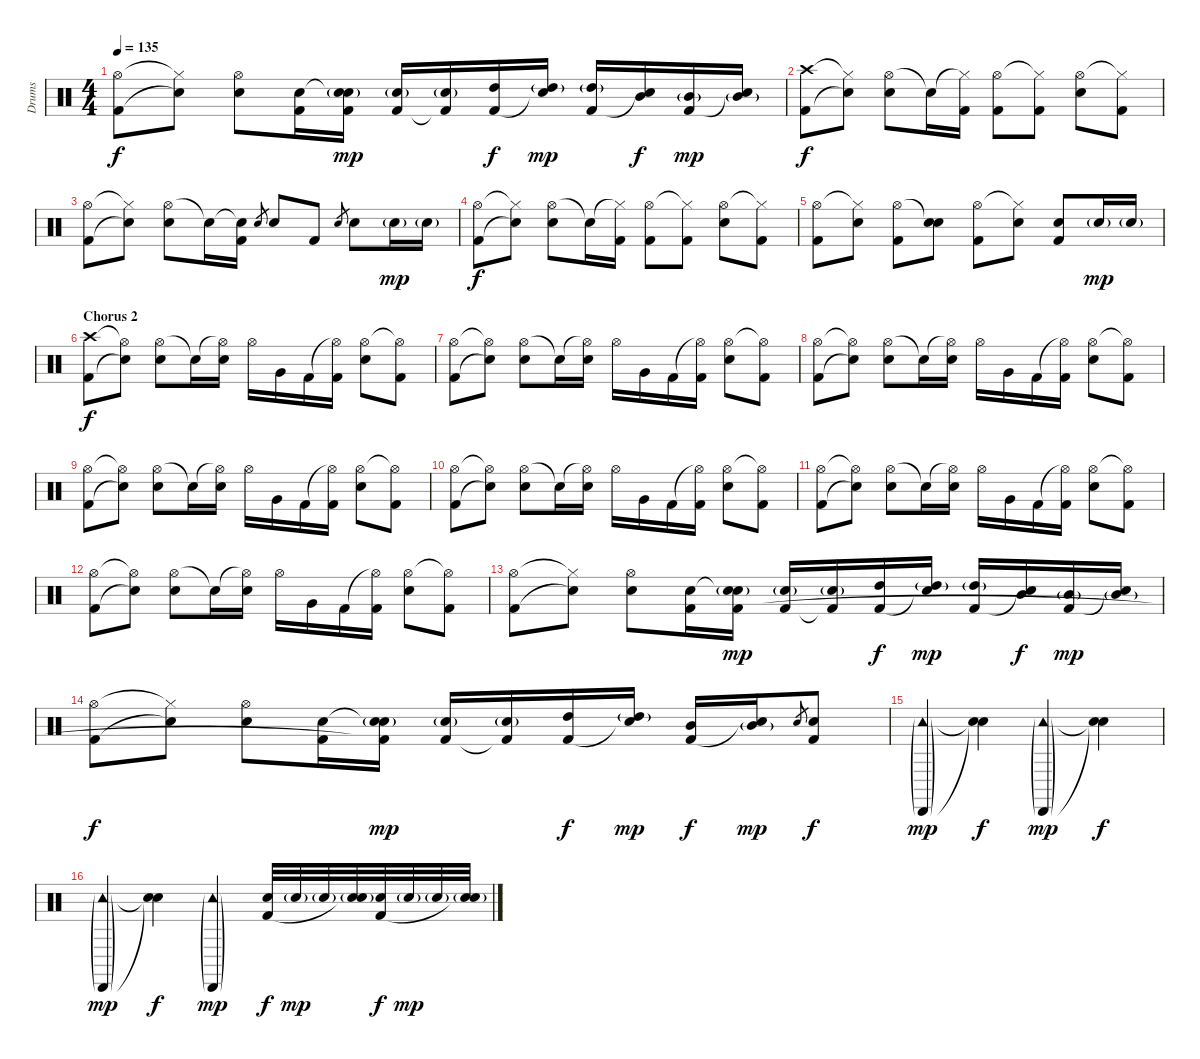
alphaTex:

\track ("Drums" "Drums") {instrument percussion}
\staff {score}
\articulation defaults
\ts (4 4)
\tempo 135
\clef neutral
\ks c
("Hi-Hat (open)" "Kick (hit) 2").8{dy f} ("Hi-Hat (closed)"{t} "Snare (hit)"{t}).8 ("Hi-Hat (open)" "Electric Snare (hit)").8 ("Electric Snare (hit)" "Kick (hit) 2").16 ("Snare (hit)"{t} "Electric Snare (hit)"{g} "Kick (hit) 2").16{dy mp} ("Electric Snare (hit)"{g} "Kick (hit) 2").16 ("Electric Snare (hit)"{g} "Kick (hit) 2"{t}).16 ("High Tom (hit)" "Kick (hit) 2").16{dy f} ("High Tom (hit)"{g} "Snare (hit)"{t}).16{dy mp} ("High Tom (hit)"{g} "Kick (hit) 2").16 ("Mid Tom (hit)" "Snare (hit)"{t}).16{dy f} ("Mid Tom (hit)"{g} "Kick (hit) 2").16{dy mp} ("Mid Tom (hit)"{g} "Snare (hit)"{t}).16 |
("Crash high (hit)" "Kick (hit) 2").8{dy f} ("Hi-Hat (closed)"{t} "Snare (hit)"{t}).8 ("Hi-Hat (open)" "Electric Snare (hit)").8 "Snare (hit)"{t}.16 ("Hi-Hat (closed)"{t} "Kick (hit) 2").16 ("Hi-Hat (open)" "Kick (hit) 2").8 ("Hi-Hat (closed)"{t} "Kick (hit) 2").8 ("Hi-Hat (open)" "Electric Snare (hit)").8 ("Hi-Hat (closed)"{t} "Kick (hit) 2").8 |
("Hi-Hat (open)" "Kick (hit) 2").8 ("Hi-Hat (closed)"{t} "Snare (hit)"{t}).8 ("Hi-Hat (open)" "Electric Snare (hit)").8 "Snare (hit)"{t}.16 ("Snare (hit)"{t} "Kick (hit) 2").16 "Electric Snare (hit)".8{gr} "Electric Snare (hit)".8 "Kick (hit) 2".8 "Electric Snare (hit)".8{gr} "Electric Snare (hit)".8 "Electric Snare (hit)"{g}.16{dy mp} "Electric Snare (hit)"{g}.16 |
("Hi-Hat (open)" "Kick (hit) 2").8{dy f} ("Hi-Hat (closed)"{t} "Snare (hit)"{t}).8 ("Hi-Hat (open)" "Electric Snare (hit)").8 "Snare (hit)"{t}.16 ("Hi-Hat (closed)"{t} "Kick (hit) 2").16 ("Hi-Hat (open)" "Kick (hit) 2").8 ("Hi-Hat (closed)"{t} "Kick (hit) 2").8 ("Hi-Hat (open)" "Electric Snare (hit)").8 ("Hi-Hat (closed)"{t} "Kick (hit) 2").8 |
("Hi-Hat (open)" "Kick (hit) 2").8 ("Hi-Hat (closed)"{t} "Electric Snare (hit)").8 ("Hi-Hat (open)" "Kick (hit) 2").8 ("Snare (hit)"{t} "Electric Snare (hit)").8 ("Hi-Hat (open)" "Kick (hit) 2").8 ("Hi-Hat (closed)"{t} "Electric Snare (hit)").8 ("Electric Snare (hit)" "Kick (hit) 2").8 "Electric Snare (hit)"{g}.16{dy mp} "Electric Snare (hit)"{g}.16 |
\section ("" "Chorus 2")
("Crash high (hit)" "Kick (hit) 2").8{dy f} ("Hi-Hat (open)"{t} "Snare (hit)"{t}).8 ("Hi-Hat (open)" "Electric Snare (hit)").8 "Snare (hit)"{t}.16 ("Hi-Hat (open)"{t} "Electric Snare (hit)").16 "Hi-Hat (open)".16 "Very Low Tom (hit)".16 "Kick (hit) 2".16 ("Hi-Hat (open)"{t} "Kick (hit) 2").16 ("Hi-Hat (open)" "Electric Snare (hit)").8 ("Hi-Hat (open)"{t} "Kick (hit) 2").8 |
("Hi-Hat (open)" "Kick (hit) 2").8 ("Hi-Hat (open)"{t} "Snare (hit)"{t}).8 ("Hi-Hat (open)" "Electric Snare (hit)").8 "Snare (hit)"{t}.16 ("Hi-Hat (open)"{t} "Electric Snare (hit)").16 "Hi-Hat (open)".16 "Very Low Tom (hit)".16 "Kick (hit) 2".16 ("Hi-Hat (open)"{t} "Kick (hit) 2").16 ("Hi-Hat (open)" "Electric Snare (hit)").8 ("Hi-Hat (open)"{t} "Kick (hit) 2").8 |
("Hi-Hat (open)" "Kick (hit) 2").8 ("Hi-Hat (open)"{t} "Snare (hit)"{t}).8 ("Hi-Hat (open)" "Electric Snare (hit)").8 "Snare (hit)"{t}.16 ("Hi-Hat (open)"{t} "Electric Snare (hit)").16 "Hi-Hat (open)".16 "Very Low Tom (hit)".16 "Kick (hit) 2".16 ("Hi-Hat (open)"{t} "Kick (hit) 2").16 ("Hi-Hat (open)" "Electric Snare (hit)").8 ("Hi-Hat (open)"{t} "Kick (hit) 2").8 |
("Hi-Hat (open)" "Kick (hit) 2").8 ("Hi-Hat (open)"{t} "Snare (hit)"{t}).8 ("Hi-Hat (open)" "Electric Snare (hit)").8 "Snare (hit)"{t}.16 ("Hi-Hat (open)"{t} "Electric Snare (hit)").16 "Hi-Hat (open)".16 "Very Low Tom (hit)".16 "Kick (hit) 2".16 ("Hi-Hat (open)"{t} "Kick (hit) 2").16 ("Hi-Hat (open)" "Electric Snare (hit)").8 ("Hi-Hat (open)"{t} "Kick (hit) 2").8 |
("Hi-Hat (open)" "Kick (hit) 2").8 ("Hi-Hat (open)"{t} "Snare (hit)"{t}).8 ("Hi-Hat (open)" "Electric Snare (hit)").8 "Snare (hit)"{t}.16 ("Hi-Hat (open)"{t} "Electric Snare (hit)").16 "Hi-Hat (open)".16 "Very Low Tom (hit)".16 "Kick (hit) 2".16 ("Hi-Hat (open)"{t} "Kick (hit) 2").16 ("Hi-Hat (open)" "Electric Snare (hit)").8 ("Hi-Hat (open)"{t} "Kick (hit) 2").8 |
("Hi-Hat (open)" "Kick (hit) 2").8 ("Hi-Hat (open)"{t} "Snare (hit)"{t}).8 ("Hi-Hat (open)" "Electric Snare (hit)").8 "Snare (hit)"{t}.16 ("Hi-Hat (open)"{t} "Electric Snare (hit)").16 "Hi-Hat (open)".16 "Very Low Tom (hit)".16 "Kick (hit) 2".16 ("Hi-Hat (open)"{t} "Kick (hit) 2").16 ("Hi-Hat (open)" "Electric Snare (hit)").8 ("Hi-Hat (open)"{t} "Kick (hit) 2").8 |
("Hi-Hat (open)" "Kick (hit) 2").8 ("Hi-Hat (open)"{t} "Snare (hit)"{t}).8 ("Hi-Hat (open)" "Electric Snare (hit)").8 "Snare (hit)"{t}.16 ("Hi-Hat (open)"{t} "Electric Snare (hit)").16 "Hi-Hat (open)".16 "Very Low Tom (hit)".16 "Kick (hit) 2".16 ("Hi-Hat (open)"{t} "Kick (hit) 2").16 ("Hi-Hat (open)" "Electric Snare (hit)").8 ("Hi-Hat (open)"{t} "Kick (hit) 2").8 |
("Hi-Hat (open)" "Kick (hit) 2").8 ("Hi-Hat (closed)"{t} "Snare (hit)"{t}).8 ("Hi-Hat (open)" "Electric Snare (hit)").8 ("Electric Snare (hit)" "Kick (hit) 2").16 ("Snare (hit)"{t} "Electric Snare (hit)"{g} "Kick (hit) 2").16{dy mp} ("Electric Snare (hit)"{g} "Kick (hit) 2").16 ("Electric Snare (hit)"{g} "Kick (hit) 2"{t}).16 ("High Tom (hit)" "Kick (hit) 2").16{dy f} ("High Tom (hit)"{g} "Snare (hit)"{t}).16{dy mp} ("High Tom (hit)"{g} "Kick (hit) 2").16 ("Mid Tom (hit)" "Snare (hit)"{t}).16{dy f} ("Mid Tom (hit)"{g} "Kick (hit) 2").16{dy mp} ("Mid Tom (hit)"{g} "Snare (hit)"{t}).16 |
("Hi-Hat (open)" "Kick (hit) 2").8{dy f} ("Hi-Hat (closed)"{t} "Snare (hit)"{t}).8 ("Hi-Hat (open)" "Electric Snare (hit)").8 ("Electric Snare (hit)" "Kick (hit) 2").16 ("Snare (hit)"{t} "Electric Snare (hit)"{g} "Kick (hit) 2"{t}).16{dy mp} ("Electric Snare (hit)"{g} "Kick (hit) 2").16 ("Electric Snare (hit)"{g} "Kick (hit) 2"{t}).16 ("High Tom (hit)" "Kick (hit) 2").16{dy f} ("High Tom (hit)"{g} "Snare (hit)"{t}).16{dy mp} ("Mid Tom (hit)" "Kick (hit) 2").16{dy f} ("Mid Tom (hit)"{g} "Snare (hit)"{t}).16{dy mp} "Electric Snare (hit)".8{gr} ("Electric Snare (hit)" "Kick (hit) 2").8{dy f} |
("Tambourine (hit)"{g} "Cabasa (hit)"{g}).4{dy mp} ("Snare (hit)"{t} "Snare (hit)"{t}).4{dy f} ("Tambourine (hit)"{g} "Cabasa (hit)"{g}).4{dy mp} ("Snare (hit)"{t} "Snare (hit)"{t}).4{dy f} |
("Tambourine (hit)"{g} "Cabasa (hit)"{g}).4{dy mp} ("Snare (hit)"{t} "Snare (hit)"{t}).4{dy f} ("Tambourine (hit)"{g} "Cabasa (hit)"{g}).4{dy mp} ("Electric Snare (hit)" "Kick (hit) 2").32{dy f} "Electric Snare (hit)"{g}.32{dy mp} "Electric Snare (hit)"{g}.32 ("Electric Snare (hit)"{g} "Snare (hit)"{t}).32 ("Electric Snare (hit)" "Kick (hit) 2").32{dy f} "Electric Snare (hit)"{g}.32{dy mp} "Electric Snare (hit)"{g}.32 ("Electric Snare (hit)"{g} "Snare (hit)"{t}).32
